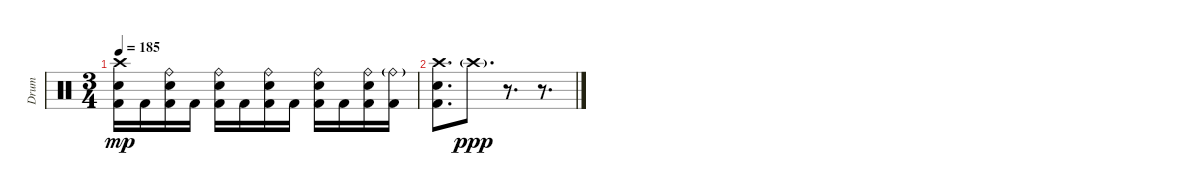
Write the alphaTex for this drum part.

\track ("Drum" "Drum") {instrument percussion}
\staff {score}
\articulation defaults
\ts (3 4)
\tempo 185
\clef neutral
\ks c
("Crash high (hit)" "Electric Snare (hit)" "Kick (hit) 2").16{dy mp} "Kick (hit) 2".16 ("Ride (bell)" "Electric Snare (hit)" "Kick (hit) 2").16 "Kick (hit) 2".16 ("Ride (bell)" "Electric Snare (hit)" "Kick (hit) 2").16 "Kick (hit) 2".16 ("Ride (bell)" "Electric Snare (hit)" "Kick (hit) 2").16 "Kick (hit) 2".16 ("Ride (bell)" "Electric Snare (hit)" "Kick (hit) 2").16 "Kick (hit) 2".16 ("Ride (bell)" "Electric Snare (hit)" "Kick (hit) 2").16 ("Ride (bell)"{g} "Kick (hit) 2").16 |
("Crash high (hit)" "Electric Snare (hit)" "Kick (hit) 2").8{d} "Crash high (hit)"{g}.8{d dy ppp} r.8{d} r.8{d}
